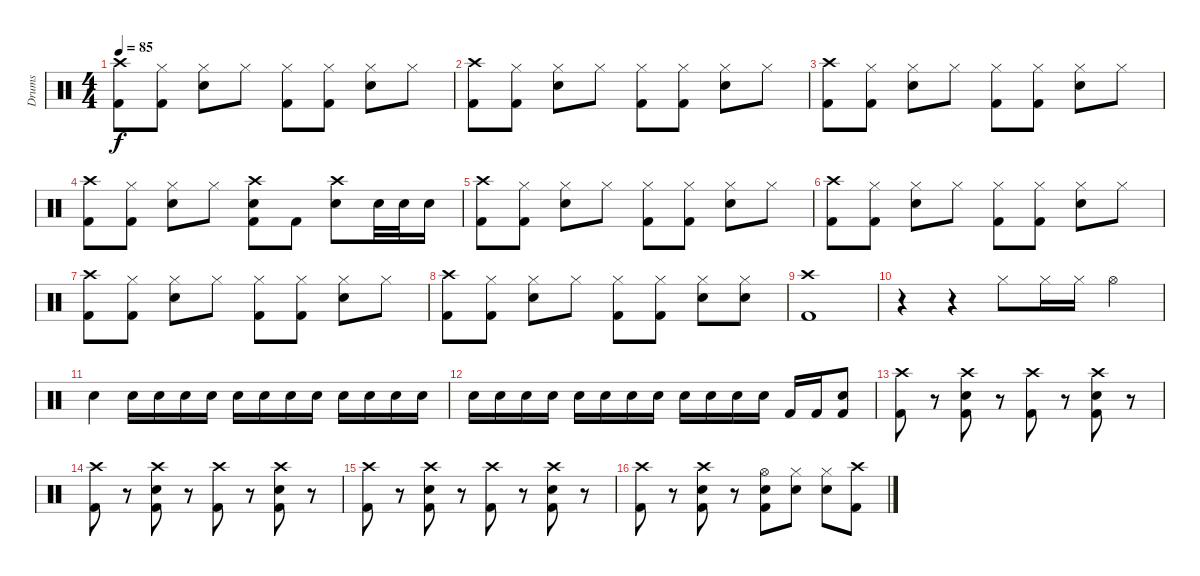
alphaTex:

\track ("Drums" "Drums") {instrument percussion}
\staff {score}
\articulation defaults
\ts (4 4)
\tempo 85
\clef neutral
\ks c
("Crash high (hit)" "Kick (hit) 2").8{dy f} ("Hi-Hat (closed)" "Kick (hit) 2").8 ("Hi-Hat (closed)" "Electric Snare (hit)").8 "Hi-Hat (closed)".8 ("Hi-Hat (closed)" "Kick (hit) 2").8 ("Hi-Hat (closed)" "Kick (hit) 2").8 ("Hi-Hat (closed)" "Electric Snare (hit)").8 "Hi-Hat (closed)".8 |
("Crash high (hit)" "Kick (hit) 2").8 ("Hi-Hat (closed)" "Kick (hit) 2").8 ("Hi-Hat (closed)" "Electric Snare (hit)").8 "Hi-Hat (closed)".8 ("Hi-Hat (closed)" "Kick (hit) 2").8 ("Hi-Hat (closed)" "Kick (hit) 2").8 ("Hi-Hat (closed)" "Electric Snare (hit)").8 "Hi-Hat (closed)".8 |
("Crash high (hit)" "Kick (hit) 2").8 ("Hi-Hat (closed)" "Kick (hit) 2").8 ("Hi-Hat (closed)" "Electric Snare (hit)").8 "Hi-Hat (closed)".8 ("Hi-Hat (closed)" "Kick (hit) 2").8 ("Hi-Hat (closed)" "Kick (hit) 2").8 ("Hi-Hat (closed)" "Electric Snare (hit)").8 "Hi-Hat (closed)".8 |
("Crash high (hit)" "Kick (hit) 2").8 ("Hi-Hat (closed)" "Kick (hit) 2").8 ("Hi-Hat (closed)" "Electric Snare (hit)").8 "Hi-Hat (closed)".8 ("Crash high (hit)" "Electric Snare (hit)" "Kick (hit) 2").8 "Kick (hit) 2".8 ("Crash high (hit)" "Electric Snare (hit)").8 "Electric Snare (hit)".32 "Electric Snare (hit)".32 "Electric Snare (hit)".16 |
("Crash high (hit)" "Kick (hit) 2").8 ("Hi-Hat (closed)" "Kick (hit) 2").8 ("Hi-Hat (closed)" "Electric Snare (hit)").8 "Hi-Hat (closed)".8 ("Hi-Hat (closed)" "Kick (hit) 2").8 ("Hi-Hat (closed)" "Kick (hit) 2").8 ("Hi-Hat (closed)" "Electric Snare (hit)").8 "Hi-Hat (closed)".8 |
("Crash high (hit)" "Kick (hit) 2").8 ("Hi-Hat (closed)" "Kick (hit) 2").8 ("Hi-Hat (closed)" "Electric Snare (hit)").8 "Hi-Hat (closed)".8 ("Hi-Hat (closed)" "Kick (hit) 2").8 ("Hi-Hat (closed)" "Kick (hit) 2").8 ("Hi-Hat (closed)" "Electric Snare (hit)").8 "Hi-Hat (closed)".8 |
("Crash high (hit)" "Kick (hit) 2").8 ("Hi-Hat (closed)" "Kick (hit) 2").8 ("Hi-Hat (closed)" "Electric Snare (hit)").8 "Hi-Hat (closed)".8 ("Hi-Hat (closed)" "Kick (hit) 2").8 ("Hi-Hat (closed)" "Kick (hit) 2").8 ("Hi-Hat (closed)" "Electric Snare (hit)").8 "Hi-Hat (closed)".8 |
("Crash high (hit)" "Kick (hit) 2").8 ("Hi-Hat (closed)" "Kick (hit) 2").8 ("Hi-Hat (closed)" "Electric Snare (hit)").8 "Hi-Hat (closed)".8 ("Hi-Hat (closed)" "Kick (hit) 2").8 ("Hi-Hat (closed)" "Kick (hit) 2").8 ("Hi-Hat (closed)" "Electric Snare (hit)").8 ("Hi-Hat (closed)" "Electric Snare (hit)").8 |
("Crash high (hit)" "Kick (hit) 2").1 |
r.4 r.4 "Hi-Hat (closed)".8 "Hi-Hat (closed)".16 "Hi-Hat (closed)".16 "Hi-Hat (open)".4 |
"Electric Snare (hit)".4 "Electric Snare (hit)".16{volume 4} "Electric Snare (hit)".16 "Electric Snare (hit)".16 "Electric Snare (hit)".16 "Electric Snare (hit)".16{volume 4} "Electric Snare (hit)".16 "Electric Snare (hit)".16 "Electric Snare (hit)".16 "Electric Snare (hit)".16{volume 8} "Electric Snare (hit)".16 "Electric Snare (hit)".16 "Electric Snare (hit)".16 |
"Electric Snare (hit)".16{volume 8} "Electric Snare (hit)".16 "Electric Snare (hit)".16 "Electric Snare (hit)".16 "Electric Snare (hit)".16{volume 12} "Electric Snare (hit)".16 "Electric Snare (hit)".16 "Electric Snare (hit)".16 "Electric Snare (hit)".16{volume 12} "Electric Snare (hit)".16 "Electric Snare (hit)".16 "Electric Snare (hit)".16 "Kick (hit) 2".16 "Kick (hit) 2".16 ("Electric Snare (hit)" "Kick (hit) 2").8 |
("Crash high (hit)" "Kick (hit) 2").8 r.8 ("Crash high (hit)" "Electric Snare (hit)" "Kick (hit) 2").8 r.8 ("Crash high (hit)" "Kick (hit) 2").8 r.8 ("Crash high (hit)" "Electric Snare (hit)" "Kick (hit) 2").8 r.8 |
("Crash high (hit)" "Kick (hit) 2").8 r.8 ("Crash high (hit)" "Electric Snare (hit)" "Kick (hit) 2").8 r.8 ("Crash high (hit)" "Kick (hit) 2").8 r.8 ("Crash high (hit)" "Electric Snare (hit)" "Kick (hit) 2").8 r.8 |
("Crash high (hit)" "Kick (hit) 2").8 r.8 ("Crash high (hit)" "Electric Snare (hit)" "Kick (hit) 2").8 r.8 ("Crash high (hit)" "Kick (hit) 2").8 r.8 ("Crash high (hit)" "Electric Snare (hit)" "Kick (hit) 2").8 r.8 |
("Crash high (hit)" "Kick (hit) 2").8 r.8 ("Crash high (hit)" "Electric Snare (hit)" "Kick (hit) 2").8 r.8 ("Hi-Hat (open)" "Electric Snare (hit)" "Kick (hit) 2").8 ("Hi-Hat (closed)" "Electric Snare (hit)").8 ("Hi-Hat (closed)" "Electric Snare (hit)").8 ("Crash high (hit)" "Kick (hit) 2").8
